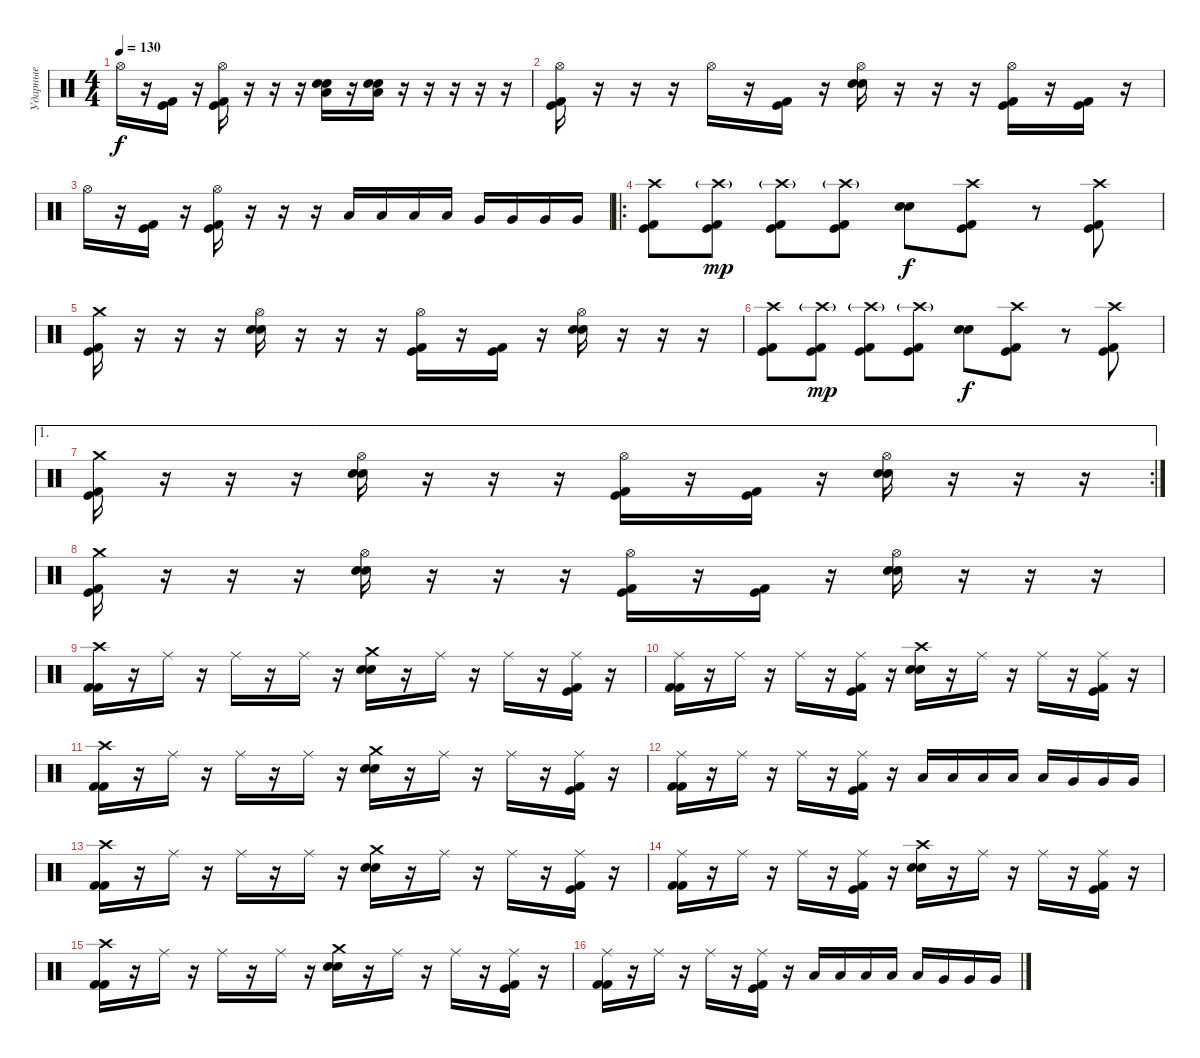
\track ("Ударные" "Ударные") {instrument percussion}
\staff {score}
\articulation defaults
\ts (4 4)
\tempo 130
\clef neutral
\ks c "Hi-Hat (open)".16{dy f}
r.16 ("Kick (hit)" "Kick (hit) 2").16 r.16 ("Hi-Hat (open)" "Kick (hit)" "Kick (hit) 2").16 r.16 r.16 r.16 ("Low Floor Tom (hit)" "Snare (hit) 2" "Electric Snare (hit)").16 r.16 ("Low Floor Tom (hit)" "Snare (hit) 2" "Electric Snare (hit)").16 r.16 r.16 r.16 r.16 r.16 |
("Hi-Hat (open)" "Kick (hit)" "Kick (hit) 2").16 r.16 r.16 r.16 "Hi-Hat (open)".16 r.16 ("Kick (hit)" "Kick (hit) 2").16 r.16 ("Hi-Hat (open)" "Snare (hit) 2" "Electric Snare (hit)").16 r.16 r.16 r.16 ("Hi-Hat (open)" "Kick (hit)" "Kick (hit) 2").16 r.16 ("Kick (hit)" "Kick (hit) 2").16 r.16 |
"Hi-Hat (open)".16 r.16 ("Kick (hit)" "Kick (hit) 2").16 r.16 ("Hi-Hat (open)" "Kick (hit)" "Kick (hit) 2").16 r.16 r.16 r.16 "Low Tom (hit)".16 "Low Tom (hit)".16 "Low Tom (hit)".16 "Low Tom (hit)".16 "Very Low Tom (hit)".16 "Very Low Tom (hit)".16 "Very Low Tom (hit)".16 "Very Low Tom (hit)".16 |
\ro
("Crash high (hit)" "Kick (hit)" "Kick (hit) 2").8 ("Crash high (hit)"{g} "Kick (hit)" "Kick (hit) 2").8{dy mp} ("Crash high (hit)"{g} "Kick (hit)" "Kick (hit) 2").8 ("Crash high (hit)"{g} "Kick (hit)" "Kick (hit) 2").8 ("Snare (hit) 2" "Electric Snare (hit)").8{dy f} ("Crash high (hit)" "Kick (hit)" "Kick (hit) 2").8 r.8 ("Crash high (hit)" "Kick (hit)" "Kick (hit) 2").8 |
("Crash medium (hit)" "Kick (hit)" "Kick (hit) 2").16 r.16 r.16 r.16 ("Hi-Hat (open)" "Snare (hit) 2" "Electric Snare (hit)").16 r.16 r.16 r.16 ("Hi-Hat (open)" "Kick (hit)" "Kick (hit) 2").16 r.16 ("Kick (hit)" "Kick (hit) 2").16 r.16 ("Hi-Hat (open)" "Electric Snare (hit)" "Snare (hit) 2").16 r.16 r.16 r.16 |
("Crash high (hit)" "Kick (hit)" "Kick (hit) 2").8 ("Crash high (hit)"{g} "Kick (hit)" "Kick (hit) 2").8{dy mp} ("Crash high (hit)"{g} "Kick (hit)" "Kick (hit) 2").8 ("Crash high (hit)"{g} "Kick (hit)" "Kick (hit) 2").8 ("Snare (hit) 2" "Electric Snare (hit)").8{dy f} ("Crash high (hit)" "Kick (hit)" "Kick (hit) 2").8 r.8 ("Crash high (hit)" "Kick (hit)" "Kick (hit) 2").8 |
\ae 1
\rc 2
("Crash medium (hit)" "Kick (hit)" "Kick (hit) 2").16 r.16 r.16 r.16 ("Hi-Hat (open)" "Snare (hit) 2" "Electric Snare (hit)").16 r.16 r.16 r.16 ("Hi-Hat (open)" "Kick (hit)" "Kick (hit) 2").16 r.16 ("Kick (hit)" "Kick (hit) 2").16 r.16 ("Hi-Hat (open)" "Electric Snare (hit)" "Snare (hit) 2").16 r.16 r.16 r.16 |
("Crash medium (hit)" "Kick (hit)" "Kick (hit) 2").16 r.16 r.16 r.16 ("Hi-Hat (open)" "Snare (hit) 2" "Electric Snare (hit)").16 r.16 r.16 r.16 ("Hi-Hat (open)" "Kick (hit)" "Kick (hit) 2").16 r.16 ("Kick (hit)" "Kick (hit) 2").16 r.16 ("Hi-Hat (open)" "Electric Snare (hit)" "Snare (hit) 2").16 r.16 r.16 r.16 |
("Crash high (hit)" "Kick (hit) 2" "Kick (hit) 2").16 r.16 "Ride (middle)".16 r.16 "Ride (middle)".16 r.16 "Ride (middle)".16 r.16 ("Crash medium (hit)" "Snare (hit) 2" "Electric Snare (hit)").16 r.16 "Ride (middle)".16 r.16 "Ride (middle)".16 r.16 ("Ride (middle)" "Kick (hit)" "Kick (hit) 2").16 r.16 |
("Ride (middle)" "Kick (hit) 2" "Kick (hit) 2").16 r.16 "Ride (middle)".16 r.16 "Ride (middle)".16 r.16 ("Ride (middle)" "Kick (hit)" "Kick (hit) 2").16 r.16 ("Crash high (hit)" "Snare (hit) 2" "Electric Snare (hit)").16 r.16 "Ride (middle)".16 r.16 "Ride (middle)".16 r.16 ("Ride (middle)" "Kick (hit)" "Kick (hit) 2").16 r.16 |
("Crash high (hit)" "Kick (hit) 2" "Kick (hit) 2").16 r.16 "Ride (middle)".16 r.16 "Ride (middle)".16 r.16 "Ride (middle)".16 r.16 ("Crash medium (hit)" "Snare (hit) 2" "Electric Snare (hit)").16 r.16 "Ride (middle)".16 r.16 "Ride (middle)".16 r.16 ("Ride (middle)" "Kick (hit)" "Kick (hit) 2").16 r.16 |
("Ride (middle)" "Kick (hit) 2" "Kick (hit) 2").16 r.16 "Ride (middle)".16 r.16 "Ride (middle)".16 r.16 ("Ride (middle)" "Kick (hit)" "Kick (hit) 2").16 r.16 "Low Tom (hit)".16 "Low Tom (hit)".16 "Low Tom (hit)".16 "Low Tom (hit)".16 "Low Tom (hit)".16 "Very Low Tom (hit)".16 "Very Low Tom (hit)".16 "Very Low Tom (hit)".16 |
("Crash high (hit)" "Kick (hit) 2" "Kick (hit) 2").16 r.16 "Ride (middle)".16 r.16 "Ride (middle)".16 r.16 "Ride (middle)".16 r.16 ("Crash medium (hit)" "Snare (hit) 2" "Electric Snare (hit)").16 r.16 "Ride (middle)".16 r.16 "Ride (middle)".16 r.16 ("Ride (middle)" "Kick (hit)" "Kick (hit) 2").16 r.16 |
("Ride (middle)" "Kick (hit) 2" "Kick (hit) 2").16 r.16 "Ride (middle)".16 r.16 "Ride (middle)".16 r.16 ("Ride (middle)" "Kick (hit)" "Kick (hit) 2").16 r.16 ("Crash high (hit)" "Snare (hit) 2" "Electric Snare (hit)").16 r.16 "Ride (middle)".16 r.16 "Ride (middle)".16 r.16 ("Ride (middle)" "Kick (hit)" "Kick (hit) 2").16 r.16 |
("Crash high (hit)" "Kick (hit) 2" "Kick (hit) 2").16 r.16 "Ride (middle)".16 r.16 "Ride (middle)".16 r.16 "Ride (middle)".16 r.16 ("Crash medium (hit)" "Snare (hit) 2" "Electric Snare (hit)").16 r.16 "Ride (middle)".16 r.16 "Ride (middle)".16 r.16 ("Ride (middle)" "Kick (hit)" "Kick (hit) 2").16 r.16 |
("Ride (middle)" "Kick (hit) 2" "Kick (hit) 2").16 r.16 "Ride (middle)".16 r.16 "Ride (middle)".16 r.16 ("Ride (middle)" "Kick (hit)" "Kick (hit) 2").16 r.16 "Low Tom (hit)".16 "Low Tom (hit)".16 "Low Tom (hit)".16 "Low Tom (hit)".16 "Low Tom (hit)".16 "Very Low Tom (hit)".16 "Very Low Tom (hit)".16 "Very Low Tom (hit)".16
